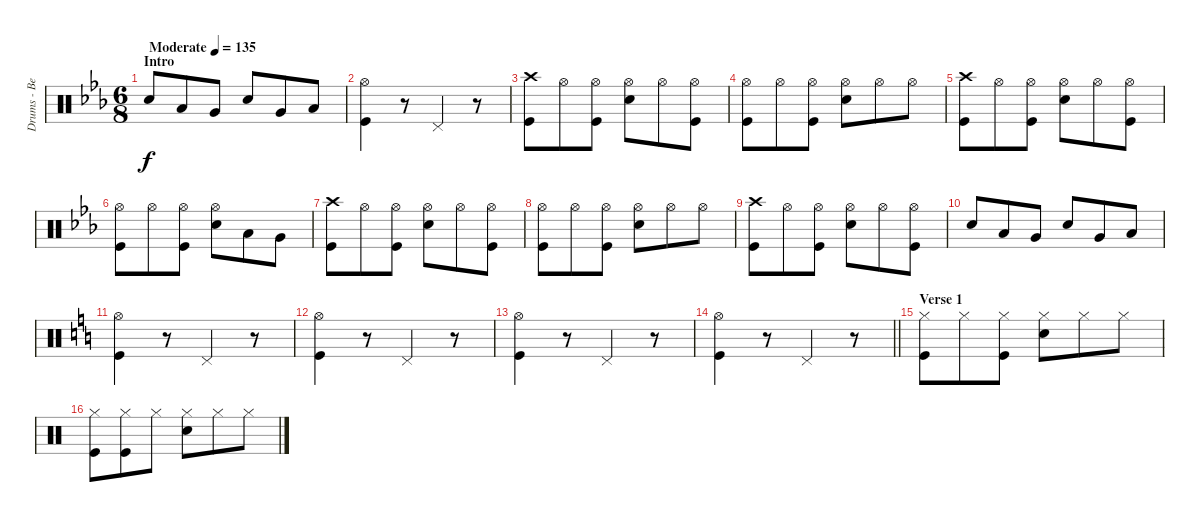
\track ("Drums - Ben Johnston" "Drums - Be") {instrument percussion}
\staff {score}
\articulation defaults
\ts (6 8)
\section ("" "Intro")
\tempo (135 "Moderate")
\clef neutral
\ks cminor "Snare (hit) 2".8{dy f} "Low Tom (hit)".8 "Very Low Tom (hit)".8 "Snare (hit) 2".8 "Very Low Tom (hit)".8 "Low Floor Tom (hit)".8
|
("Hi-Hat (open)" "Kick (hit)").4 r.8 "Pedal Hi-Hat (hit)".4 r.8 |
("Crash high (hit)" "Kick (hit)").8 "Hi-Hat (open)".8 ("Hi-Hat (open)" "Kick (hit)").8 ("Hi-Hat (open)" "Snare (hit) 2").8 "Hi-Hat (open)".8 ("Hi-Hat (open)" "Kick (hit)").8 |
("Hi-Hat (open)" "Kick (hit)").8 "Hi-Hat (open)".8 ("Hi-Hat (open)" "Kick (hit)").8 ("Hi-Hat (open)" "Snare (hit) 2").8 "Hi-Hat (open)".8 "Hi-Hat (open)".8 |
("Crash high (hit)" "Kick (hit)").8 "Hi-Hat (open)".8 ("Hi-Hat (open)" "Kick (hit)").8 ("Hi-Hat (open)" "Snare (hit) 2").8 "Hi-Hat (open)".8 ("Hi-Hat (open)" "Kick (hit)").8 |
("Hi-Hat (open)" "Kick (hit)").8 "Hi-Hat (open)".8 ("Hi-Hat (open)" "Kick (hit)").8 ("Hi-Hat (open)" "Snare (hit) 2").8 "Low Tom (hit)".8 "Very Low Tom (hit)".8 |
("Crash high (hit)" "Kick (hit)").8 "Hi-Hat (open)".8 ("Hi-Hat (open)" "Kick (hit)").8 ("Hi-Hat (open)" "Snare (hit) 2").8 "Hi-Hat (open)".8 ("Hi-Hat (open)" "Kick (hit)").8 |
("Hi-Hat (open)" "Kick (hit)").8 "Hi-Hat (open)".8 ("Hi-Hat (open)" "Kick (hit)").8 ("Hi-Hat (open)" "Snare (hit) 2").8 "Hi-Hat (open)".8 "Hi-Hat (open)".8 |
("Crash high (hit)" "Kick (hit)").8 "Hi-Hat (open)".8 ("Hi-Hat (open)" "Kick (hit)").8 ("Hi-Hat (open)" "Snare (hit) 2").8 "Hi-Hat (open)".8 ("Hi-Hat (open)" "Kick (hit)").8 |
"Snare (hit) 2".8 "Low Tom (hit)".8 "Very Low Tom (hit)".8 "Snare (hit) 2".8 "Very Low Tom (hit)".8 "Low Floor Tom (hit)".8 |
\ks c
("Hi-Hat (open)" "Kick (hit)").4 r.8 "Pedal Hi-Hat (hit)".4 r.8 |
("Hi-Hat (open)" "Kick (hit)").4 r.8 "Pedal Hi-Hat (hit)".4 r.8 |
("Hi-Hat (open)" "Kick (hit)").4 r.8 "Pedal Hi-Hat (hit)".4 r.8 |
\barLineRight lightlight
("Hi-Hat (open)" "Kick (hit)").4 r.8 "Pedal Hi-Hat (hit)".4 r.8 |
\section ("" "Verse 1")
("Hi-Hat (closed)" "Kick (hit)").8 "Hi-Hat (closed)".8 ("Hi-Hat (closed)" "Kick (hit)").8 ("Hi-Hat (closed)" "Snare (hit) 2").8 "Hi-Hat (closed)".8 "Hi-Hat (closed)".8 |
("Hi-Hat (closed)" "Kick (hit)").8 ("Hi-Hat (closed)" "Kick (hit)").8 "Hi-Hat (closed)".8 ("Hi-Hat (closed)" "Snare (hit) 2").8 "Hi-Hat (closed)".8 "Hi-Hat (closed)".8
